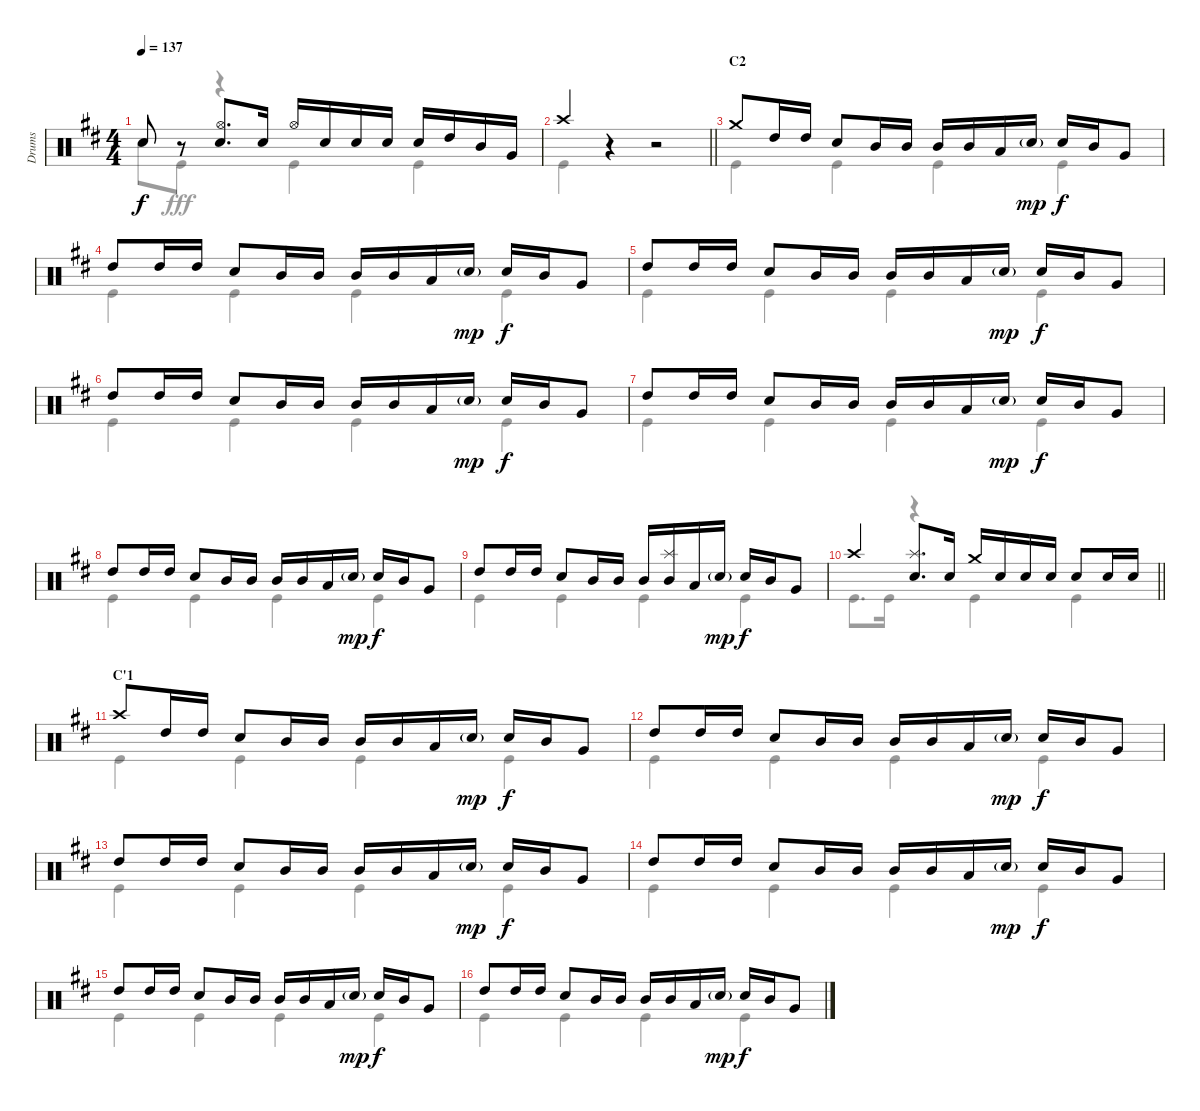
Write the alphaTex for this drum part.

\track ("Drums" "Drums") {instrument percussion}
\staff {score}
\articulation defaults
\voice
\ts (4 4)
\tempo 137
\clef neutral
\ks d "Snare (hit)"{t}.8{dy f}
r.8 ("Hi-Hat (open)" "Snare (hit) 2").8{d} "Snare (hit) 2".16 "Hi-Hat (open)".16 "Snare (hit) 2".16 "Snare (hit) 2".16 "Snare (hit) 2".16 "Snare (hit) 2".16 "High Tom (hit)".16 "Mid Tom (hit)".16 "Very Low Tom (hit)".16 |
\barLineRight lightlight "Crash high (hit)".4
r.4 r.2 |
\section ("" "C2")
"Crash medium (hit)".8 "High Tom (hit)".16 "High Tom (hit)".16 "Snare (hit) 2".8 "Mid Tom (hit)".16 "Mid Tom (hit)".16 "Mid Tom (hit)".16 "Mid Tom (hit)".16 "Low Tom (hit)".16 "Snare (hit) 2"{g}.16{dy mp} "Snare (hit) 2".16{dy f} "Mid Tom (hit)".16 "Very Low Tom (hit)".8 |
"High Tom (hit)".8 "High Tom (hit)".16 "High Tom (hit)".16 "Snare (hit) 2".8 "Mid Tom (hit)".16 "Mid Tom (hit)".16 "Mid Tom (hit)".16 "Mid Tom (hit)".16 "Low Tom (hit)".16 "Snare (hit) 2"{g}.16{dy mp} "Snare (hit) 2".16{dy f} "Mid Tom (hit)".16 "Very Low Tom (hit)".8 |
"High Tom (hit)".8 "High Tom (hit)".16 "High Tom (hit)".16 "Snare (hit) 2".8 "Mid Tom (hit)".16 "Mid Tom (hit)".16 "Mid Tom (hit)".16 "Mid Tom (hit)".16 "Low Tom (hit)".16 "Snare (hit) 2"{g}.16{dy mp} "Snare (hit) 2".16{dy f} "Mid Tom (hit)".16 "Very Low Tom (hit)".8 |
"High Tom (hit)".8 "High Tom (hit)".16 "High Tom (hit)".16 "Snare (hit) 2".8 "Mid Tom (hit)".16 "Mid Tom (hit)".16 "Mid Tom (hit)".16 "Mid Tom (hit)".16 "Low Tom (hit)".16 "Snare (hit) 2"{g}.16{dy mp} "Snare (hit) 2".16{dy f} "Mid Tom (hit)".16 "Very Low Tom (hit)".8 |
"High Tom (hit)".8 "High Tom (hit)".16 "High Tom (hit)".16 "Snare (hit) 2".8 "Mid Tom (hit)".16 "Mid Tom (hit)".16 "Mid Tom (hit)".16 "Mid Tom (hit)".16 "Low Tom (hit)".16 "Snare (hit) 2"{g}.16{dy mp} "Snare (hit) 2".16{dy f} "Mid Tom (hit)".16 "Very Low Tom (hit)".8 |
"High Tom (hit)".8 "High Tom (hit)".16 "High Tom (hit)".16 "Snare (hit) 2".8 "Mid Tom (hit)".16 "Mid Tom (hit)".16 "Mid Tom (hit)".16 "Mid Tom (hit)".16 "Low Tom (hit)".16 "Snare (hit) 2"{g}.16{dy mp} "Snare (hit) 2".16{dy f} "Mid Tom (hit)".16 "Very Low Tom (hit)".8 |
"High Tom (hit)".8 "High Tom (hit)".16 "High Tom (hit)".16 "Snare (hit) 2".8 "Mid Tom (hit)".16 "Mid Tom (hit)".16 "Mid Tom (hit)".16 ("Mid Tom (hit)" "Splash (hit)").16 "Low Tom (hit)".16 "Snare (hit) 2"{g}.16{dy mp} "Snare (hit) 2".16{dy f} "Mid Tom (hit)".16 "Very Low Tom (hit)".8 |
\barLineRight lightlight "Crash high (hit)".4
("Splash (hit)" "Snare (hit) 2").8{d} "Snare (hit) 2".16 "Crash medium (hit)".16 "Snare (hit) 2".16 "Snare (hit) 2".16 "Snare (hit) 2".16 "Snare (hit) 2".8 "Snare (hit) 2".16 "Snare (hit) 2".16 |
\section ("" "C'1")
"Crash high (hit)".8 "High Tom (hit)".16 "High Tom (hit)".16 "Snare (hit) 2".8 "Mid Tom (hit)".16 "Mid Tom (hit)".16 "Mid Tom (hit)".16 "Mid Tom (hit)".16 "Low Tom (hit)".16 "Snare (hit) 2"{g}.16{dy mp} "Snare (hit) 2".16{dy f} "Mid Tom (hit)".16 "Very Low Tom (hit)".8 |
"High Tom (hit)".8 "High Tom (hit)".16 "High Tom (hit)".16 "Snare (hit) 2".8 "Mid Tom (hit)".16 "Mid Tom (hit)".16 "Mid Tom (hit)".16 "Mid Tom (hit)".16 "Low Tom (hit)".16 "Snare (hit) 2"{g}.16{dy mp} "Snare (hit) 2".16{dy f} "Mid Tom (hit)".16 "Very Low Tom (hit)".8 |
"High Tom (hit)".8 "High Tom (hit)".16 "High Tom (hit)".16 "Snare (hit) 2".8 "Mid Tom (hit)".16 "Mid Tom (hit)".16 "Mid Tom (hit)".16 "Mid Tom (hit)".16 "Low Tom (hit)".16 "Snare (hit) 2"{g}.16{dy mp} "Snare (hit) 2".16{dy f} "Mid Tom (hit)".16 "Very Low Tom (hit)".8 |
"High Tom (hit)".8 "High Tom (hit)".16 "High Tom (hit)".16 "Snare (hit) 2".8 "Mid Tom (hit)".16 "Mid Tom (hit)".16 "Mid Tom (hit)".16 "Mid Tom (hit)".16 "Low Tom (hit)".16 "Snare (hit) 2"{g}.16{dy mp} "Snare (hit) 2".16{dy f} "Mid Tom (hit)".16 "Very Low Tom (hit)".8 |
"High Tom (hit)".8 "High Tom (hit)".16 "High Tom (hit)".16 "Snare (hit) 2".8 "Mid Tom (hit)".16 "Mid Tom (hit)".16 "Mid Tom (hit)".16 "Mid Tom (hit)".16 "Low Tom (hit)".16 "Snare (hit) 2"{g}.16{dy mp} "Snare (hit) 2".16{dy f} "Mid Tom (hit)".16 "Very Low Tom (hit)".8 |
"High Tom (hit)".8 "High Tom (hit)".16 "High Tom (hit)".16 "Snare (hit) 2".8 "Mid Tom (hit)".16 "Mid Tom (hit)".16 "Mid Tom (hit)".16 "Mid Tom (hit)".16 "Low Tom (hit)".16 "Snare (hit) 2"{g}.16{dy mp} "Snare (hit) 2".16{dy f} "Mid Tom (hit)".16 "Very Low Tom (hit)".8
\voice
\clef neutral
\ottava regular
\simile none
\ks d "Snare (hit)"{t}.8{dy f} "Kick (hit)".8{dy fff}
r.4 "Kick (hit)".4 "Kick (hit)".4 |
\barLineRight lightlight "Kick (hit)".4
r.4 r.2 |
"Kick (hit)".4 "Kick (hit)".4 "Kick (hit)".4 "Kick (hit)".4 |
"Kick (hit)".4 "Kick (hit)".4 "Kick (hit)".4 "Kick (hit)".4 |
"Kick (hit)".4 "Kick (hit)".4 "Kick (hit)".4 "Kick (hit)".4 |
"Kick (hit)".4 "Kick (hit)".4 "Kick (hit)".4 "Kick (hit)".4 |
"Kick (hit)".4 "Kick (hit)".4 "Kick (hit)".4 "Kick (hit)".4 |
"Kick (hit)".4 "Kick (hit)".4 "Kick (hit)".4 "Kick (hit)".4 |
"Kick (hit)".4 "Kick (hit)".4 "Kick (hit)".4 "Kick (hit)".4 |
\barLineRight lightlight "Kick (hit)".8{d} "Kick (hit)".16
r.4 "Kick (hit)".4 "Kick (hit)".4 |
"Kick (hit)".4 "Kick (hit)".4 "Kick (hit)".4 "Kick (hit)".4 |
"Kick (hit)".4 "Kick (hit)".4 "Kick (hit)".4 "Kick (hit)".4 |
"Kick (hit)".4 "Kick (hit)".4 "Kick (hit)".4 "Kick (hit)".4 |
"Kick (hit)".4 "Kick (hit)".4 "Kick (hit)".4 "Kick (hit)".4 |
"Kick (hit)".4 "Kick (hit)".4 "Kick (hit)".4 "Kick (hit)".4 |
"Kick (hit)".4 "Kick (hit)".4 "Kick (hit)".4 "Kick (hit)".4
